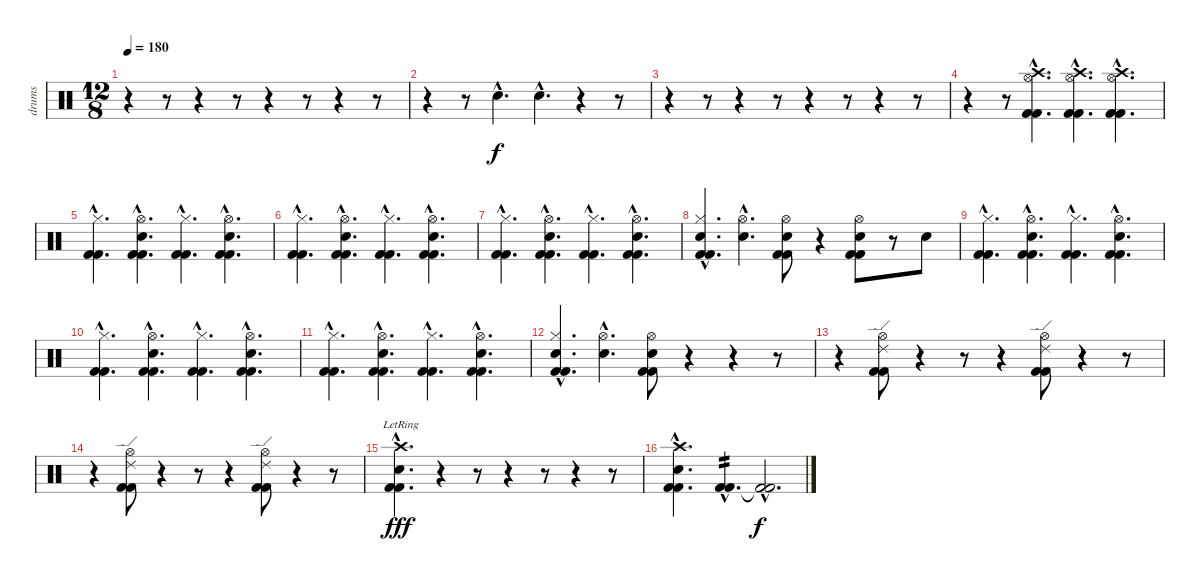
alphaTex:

\track ("drums" "drums") {instrument percussion}
\staff {score}
\articulation defaults
\ts (12 8)
\tempo 180
\clef neutral
\ks c
r.4{dy f} r.8 r.4 r.8 r.4 r.8 r.4 r.8 |
r.4 r.8 "Hand Clap (hit)"{hac}.4{d} "Hand Clap (hit)"{hac}.4{d} r.4 r.8 |
r.4 r.8 r.4 r.8 r.4 r.8 r.4 r.8 |
r.4 r.8 ("Hi-Hat (open)"{hac} "Crash high (hit)"{hac} "Kick (hit) 2"{hac} "Kick (hit) 2"{hac}).4{d} ("Hi-Hat (open)"{hac} "Crash high (hit)"{hac} "Kick (hit) 2"{hac} "Kick (hit) 2"{hac}).4{d} ("Hi-Hat (open)"{hac} "Crash high (hit)"{hac} "Kick (hit) 2"{hac} "Kick (hit) 2"{hac}).4{d} |
("Hi-Hat (closed)"{hac} "Kick (hit) 2"{hac} "Kick (hit) 2"{hac}).4{d} ("Hi-Hat (open)"{hac} "Snare (hit) 2"{hac} "Kick (hit) 2"{hac} "Kick (hit) 2"{hac}).4{d} ("Hi-Hat (closed)"{hac} "Kick (hit) 2"{hac} "Kick (hit) 2"{hac}).4{d} ("Hi-Hat (open)"{hac} "Snare (hit) 2"{hac} "Kick (hit) 2"{hac} "Kick (hit) 2"{hac}).4{d} |
("Hi-Hat (closed)"{hac} "Kick (hit) 2"{hac} "Kick (hit) 2"{hac}).4{d} ("Hi-Hat (open)"{hac} "Snare (hit) 2"{hac} "Kick (hit) 2"{hac} "Kick (hit) 2"{hac}).4{d} ("Hi-Hat (closed)"{hac} "Kick (hit) 2"{hac} "Kick (hit) 2"{hac}).4{d} ("Hi-Hat (open)"{hac} "Snare (hit) 2"{hac} "Kick (hit) 2"{hac} "Kick (hit) 2"{hac}).4{d} |
("Hi-Hat (closed)"{hac} "Kick (hit) 2"{hac} "Kick (hit) 2"{hac}).4{d} ("Hi-Hat (open)"{hac} "Snare (hit) 2"{hac} "Kick (hit) 2"{hac} "Kick (hit) 2"{hac}).4{d} ("Hi-Hat (closed)"{hac} "Kick (hit) 2"{hac} "Kick (hit) 2"{hac}).4{d} ("Hi-Hat (open)"{hac} "Snare (hit) 2"{hac} "Kick (hit) 2"{hac} "Kick (hit) 2"{hac}).4{d} |
("Hi-Hat (closed)"{hac} "Snare (hit) 2"{hac} "Kick (hit) 2"{hac} "Kick (hit) 2"{hac}).4{d} ("Hi-Hat (open)"{hac} "Snare (hit) 2"{hac}).4{d} ("Hi-Hat (open)" "Snare (hit) 2" "Kick (hit) 2" "Kick (hit) 2").8 r.4 ("Hi-Hat (open)" "Snare (hit) 2" "Kick (hit) 2" "Kick (hit) 2").8 r.8 "Snare (hit) 2".8 |
("Hi-Hat (closed)"{hac} "Kick (hit) 2"{hac} "Kick (hit) 2"{hac}).4{d} ("Hi-Hat (open)"{hac} "Snare (hit) 2"{hac} "Kick (hit) 2"{hac} "Kick (hit) 2"{hac}).4{d} ("Hi-Hat (closed)"{hac} "Kick (hit) 2"{hac} "Kick (hit) 2"{hac}).4{d} ("Hi-Hat (open)"{hac} "Snare (hit) 2"{hac} "Kick (hit) 2"{hac} "Kick (hit) 2"{hac}).4{d} |
("Hi-Hat (closed)"{hac} "Kick (hit) 2"{hac} "Kick (hit) 2"{hac}).4{d} ("Hi-Hat (open)"{hac} "Snare (hit) 2"{hac} "Kick (hit) 2"{hac} "Kick (hit) 2"{hac}).4{d} ("Hi-Hat (closed)"{hac} "Kick (hit) 2"{hac} "Kick (hit) 2"{hac}).4{d} ("Hi-Hat (open)"{hac} "Snare (hit) 2"{hac} "Kick (hit) 2"{hac} "Kick (hit) 2"{hac}).4{d} |
("Hi-Hat (closed)"{hac} "Kick (hit) 2"{hac} "Kick (hit) 2"{hac}).4{d} ("Hi-Hat (open)"{hac} "Snare (hit) 2"{hac} "Kick (hit) 2"{hac} "Kick (hit) 2"{hac}).4{d} ("Hi-Hat (closed)"{hac} "Kick (hit) 2"{hac} "Kick (hit) 2"{hac}).4{d} ("Hi-Hat (open)"{hac} "Snare (hit) 2"{hac} "Kick (hit) 2"{hac} "Kick (hit) 2"{hac}).4{d} |
("Hi-Hat (closed)"{hac} "Snare (hit) 2"{hac} "Kick (hit) 2"{hac} "Kick (hit) 2"{hac}).4{d} ("Hi-Hat (open)"{hac} "Snare (hit) 2"{hac}).4{d} ("Hi-Hat (open)" "Snare (hit) 2" "Kick (hit) 2" "Kick (hit) 2").8 r.4 r.4 r.8 |
r.4 ("Hi-Hat (open)" "Ride (edge) 2" "Kick (hit) 2" "Kick (hit) 2").8 r.4 r.8 r.4 ("Hi-Hat (open)" "Ride (edge) 2" "Kick (hit) 2" "Kick (hit) 2").8 r.4 r.8 |
r.4 ("Hi-Hat (open)" "Ride (edge) 2" "Kick (hit) 2" "Kick (hit) 2").8 r.4 r.8 r.4 ("Hi-Hat (open)" "Ride (edge) 2" "Kick (hit) 2" "Kick (hit) 2").8 r.4 r.8 |
("Crash high (hit)"{hac lr} "Snare (hit) 2"{hac} "Kick (hit) 2"{hac} "Kick (hit) 2"{hac}).4{d dy fff} r.4 r.8 r.4 r.8 r.4 r.8 |
("Crash high (hit)"{hac} "Snare (hit) 2"{hac} "Kick (hit) 2"{hac} "Kick (hit) 2"{hac}).4{d} ("Kick (hit) 2"{hac} "Kick (hit) 2"{hac}).4{d tp 2} ("Kick (hit) 2"{hac t} "Kick (hit) 2"{hac t}).2{d dy f}
